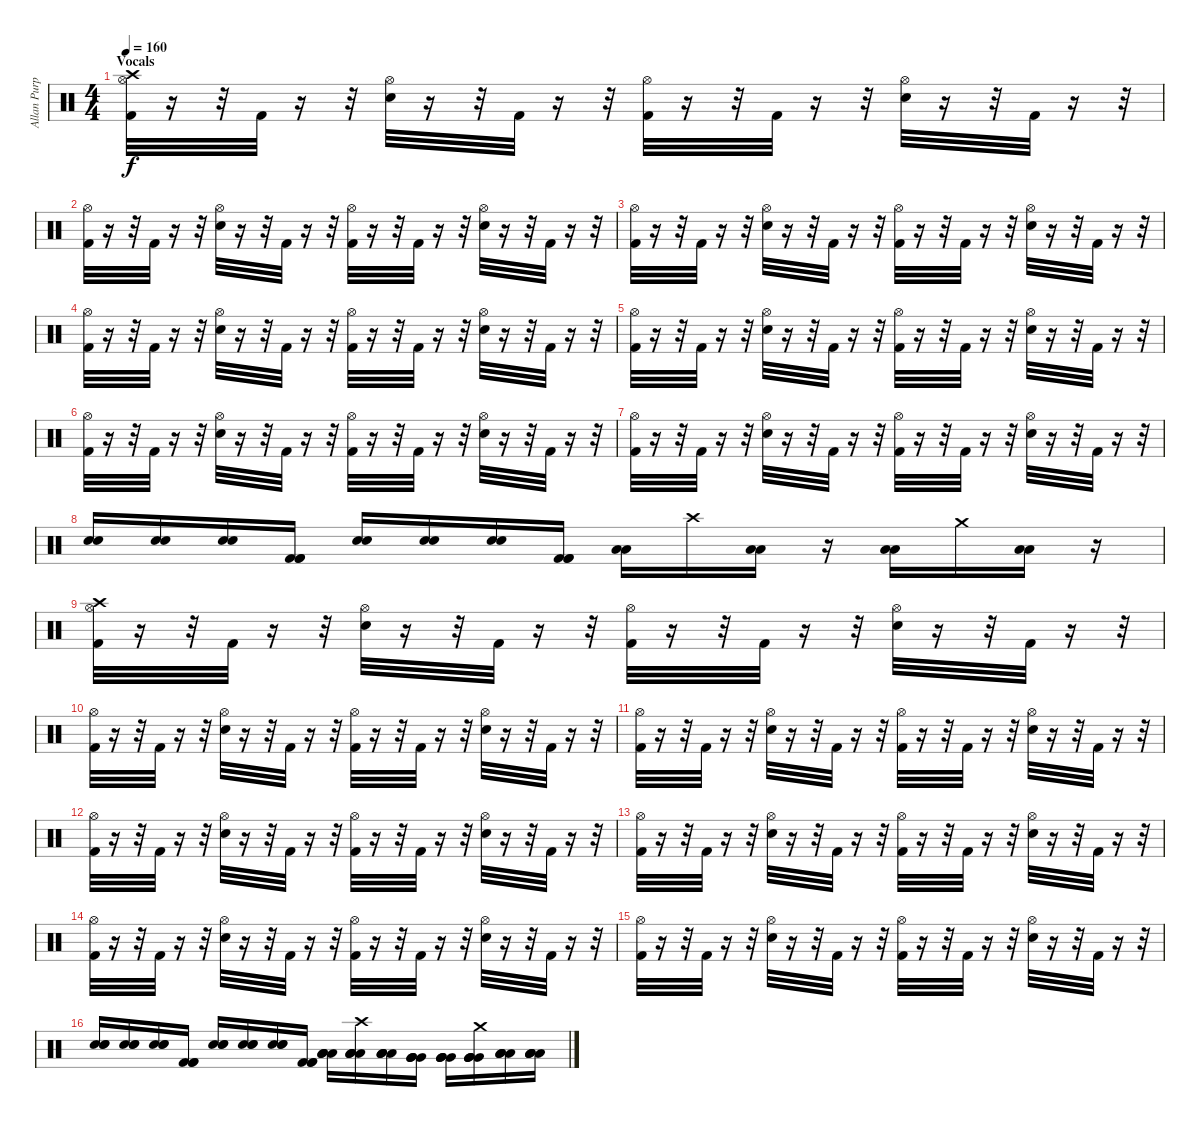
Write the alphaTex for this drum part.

\track ("Allan Purple" "Allan Purp") {instrument percussion}
\staff {score}
\articulation defaults
\ts (4 4)
\section ("" "Vocals")
\tempo 160
\clef neutral
\ks c
("Crash high (hit)" "Hi-Hat (open)" "Kick (hit) 2").32{dy f} r.16 r.32 "Kick (hit) 2".32 r.16 r.32 ("Hi-Hat (open)" "Electric Snare (hit)").32 r.16 r.32 "Kick (hit) 2".32 r.16 r.32 ("Hi-Hat (open)" "Kick (hit) 2").32 r.16 r.32 "Kick (hit) 2".32 r.16 r.32 ("Hi-Hat (open)" "Electric Snare (hit)").32 r.16 r.32 "Kick (hit) 2".32 r.16 r.32 |
("Hi-Hat (open)" "Kick (hit) 2").32 r.16 r.32 "Kick (hit) 2".32 r.16 r.32 ("Hi-Hat (open)" "Electric Snare (hit)").32 r.16 r.32 "Kick (hit) 2".32 r.16 r.32 ("Hi-Hat (open)" "Kick (hit) 2").32 r.16 r.32 "Kick (hit) 2".32 r.16 r.32 ("Hi-Hat (open)" "Electric Snare (hit)").32 r.16 r.32 "Kick (hit) 2".32 r.16 r.32 |
("Hi-Hat (open)" "Kick (hit) 2").32 r.16 r.32 "Kick (hit) 2".32 r.16 r.32 ("Hi-Hat (open)" "Electric Snare (hit)").32 r.16 r.32 "Kick (hit) 2".32 r.16 r.32 ("Hi-Hat (open)" "Kick (hit) 2").32 r.16 r.32 "Kick (hit) 2".32 r.16 r.32 ("Hi-Hat (open)" "Electric Snare (hit)").32 r.16 r.32 "Kick (hit) 2".32 r.16 r.32 |
("Hi-Hat (open)" "Kick (hit) 2").32 r.16 r.32 "Kick (hit) 2".32 r.16 r.32 ("Hi-Hat (open)" "Electric Snare (hit)").32 r.16 r.32 "Kick (hit) 2".32 r.16 r.32 ("Hi-Hat (open)" "Kick (hit) 2").32 r.16 r.32 "Kick (hit) 2".32 r.16 r.32 ("Hi-Hat (open)" "Electric Snare (hit)").32 r.16 r.32 "Kick (hit) 2".32 r.16 r.32 |
("Hi-Hat (open)" "Kick (hit) 2").32 r.16 r.32 "Kick (hit) 2".32 r.16 r.32 ("Hi-Hat (open)" "Electric Snare (hit)").32 r.16 r.32 "Kick (hit) 2".32 r.16 r.32 ("Hi-Hat (open)" "Kick (hit) 2").32 r.16 r.32 "Kick (hit) 2".32 r.16 r.32 ("Hi-Hat (open)" "Electric Snare (hit)").32 r.16 r.32 "Kick (hit) 2".32 r.16 r.32 |
("Hi-Hat (open)" "Kick (hit) 2").32 r.16 r.32 "Kick (hit) 2".32 r.16 r.32 ("Hi-Hat (open)" "Electric Snare (hit)").32 r.16 r.32 "Kick (hit) 2".32 r.16 r.32 ("Hi-Hat (open)" "Kick (hit) 2").32 r.16 r.32 "Kick (hit) 2".32 r.16 r.32 ("Hi-Hat (open)" "Electric Snare (hit)").32 r.16 r.32 "Kick (hit) 2".32 r.16 r.32 |
("Hi-Hat (open)" "Kick (hit) 2").32 r.16 r.32 "Kick (hit) 2".32 r.16 r.32 ("Hi-Hat (open)" "Electric Snare (hit)").32 r.16 r.32 "Kick (hit) 2".32 r.16 r.32 ("Hi-Hat (open)" "Kick (hit) 2").32 r.16 r.32 "Kick (hit) 2".32 r.16 r.32 ("Hi-Hat (open)" "Electric Snare (hit)").32 r.16 r.32 "Kick (hit) 2".32 r.16 r.32 |
("Electric Snare (hit)" "Electric Snare (hit)").16 ("Electric Snare (hit)" "Electric Snare (hit)").16 ("Electric Snare (hit)" "Electric Snare (hit)").16 ("Kick (hit) 2" "Kick (hit) 2" "Kick (hit) 2").16 ("Electric Snare (hit)" "Electric Snare (hit)").16 ("Electric Snare (hit)" "Electric Snare (hit)").16 ("Electric Snare (hit)" "Electric Snare (hit)").16 ("Kick (hit) 2" "Kick (hit) 2" "Kick (hit) 2").16 ("Low Tom (hit)" "Low Tom (hit)").16 "Crash high (hit)".16 ("Low Tom (hit)" "Low Tom (hit)").16 r.16 ("Low Tom (hit)" "Low Tom (hit)").16 "Crash medium (hit)".16 ("Low Tom (hit)" "Low Tom (hit)").16 r.16 |
("Crash high (hit)" "Hi-Hat (open)" "Kick (hit) 2").32 r.16 r.32 "Kick (hit) 2".32 r.16 r.32 ("Hi-Hat (open)" "Electric Snare (hit)").32 r.16 r.32 "Kick (hit) 2".32 r.16 r.32 ("Hi-Hat (open)" "Kick (hit) 2").32 r.16 r.32 "Kick (hit) 2".32 r.16 r.32 ("Hi-Hat (open)" "Electric Snare (hit)").32 r.16 r.32 "Kick (hit) 2".32 r.16 r.32 |
("Hi-Hat (open)" "Kick (hit) 2").32 r.16 r.32 "Kick (hit) 2".32 r.16 r.32 ("Hi-Hat (open)" "Electric Snare (hit)").32 r.16 r.32 "Kick (hit) 2".32 r.16 r.32 ("Hi-Hat (open)" "Kick (hit) 2").32 r.16 r.32 "Kick (hit) 2".32 r.16 r.32 ("Hi-Hat (open)" "Electric Snare (hit)").32 r.16 r.32 "Kick (hit) 2".32 r.16 r.32 |
("Hi-Hat (open)" "Kick (hit) 2").32 r.16 r.32 "Kick (hit) 2".32 r.16 r.32 ("Hi-Hat (open)" "Electric Snare (hit)").32 r.16 r.32 "Kick (hit) 2".32 r.16 r.32 ("Hi-Hat (open)" "Kick (hit) 2").32 r.16 r.32 "Kick (hit) 2".32 r.16 r.32 ("Hi-Hat (open)" "Electric Snare (hit)").32 r.16 r.32 "Kick (hit) 2".32 r.16 r.32 |
("Hi-Hat (open)" "Kick (hit) 2").32 r.16 r.32 "Kick (hit) 2".32 r.16 r.32 ("Hi-Hat (open)" "Electric Snare (hit)").32 r.16 r.32 "Kick (hit) 2".32 r.16 r.32 ("Hi-Hat (open)" "Kick (hit) 2").32 r.16 r.32 "Kick (hit) 2".32 r.16 r.32 ("Hi-Hat (open)" "Electric Snare (hit)").32 r.16 r.32 "Kick (hit) 2".32 r.16 r.32 |
("Hi-Hat (open)" "Kick (hit) 2").32 r.16 r.32 "Kick (hit) 2".32 r.16 r.32 ("Hi-Hat (open)" "Electric Snare (hit)").32 r.16 r.32 "Kick (hit) 2".32 r.16 r.32 ("Hi-Hat (open)" "Kick (hit) 2").32 r.16 r.32 "Kick (hit) 2".32 r.16 r.32 ("Hi-Hat (open)" "Electric Snare (hit)").32 r.16 r.32 "Kick (hit) 2".32 r.16 r.32 |
("Hi-Hat (open)" "Kick (hit) 2").32 r.16 r.32 "Kick (hit) 2".32 r.16 r.32 ("Hi-Hat (open)" "Electric Snare (hit)").32 r.16 r.32 "Kick (hit) 2".32 r.16 r.32 ("Hi-Hat (open)" "Kick (hit) 2").32 r.16 r.32 "Kick (hit) 2".32 r.16 r.32 ("Hi-Hat (open)" "Electric Snare (hit)").32 r.16 r.32 "Kick (hit) 2".32 r.16 r.32 |
("Hi-Hat (open)" "Kick (hit) 2").32 r.16 r.32 "Kick (hit) 2".32 r.16 r.32 ("Hi-Hat (open)" "Electric Snare (hit)").32 r.16 r.32 "Kick (hit) 2".32 r.16 r.32 ("Hi-Hat (open)" "Kick (hit) 2").32 r.16 r.32 "Kick (hit) 2".32 r.16 r.32 ("Hi-Hat (open)" "Electric Snare (hit)").32 r.16 r.32 "Kick (hit) 2".32 r.16 r.32 |
("Electric Snare (hit)" "Electric Snare (hit)" "Electric Snare (hit)").16 ("Electric Snare (hit)" "Electric Snare (hit)" "Electric Snare (hit)").16 ("Electric Snare (hit)" "Electric Snare (hit)" "Electric Snare (hit)").16 ("Kick (hit) 2" "Kick (hit) 2" "Kick (hit) 2").16 ("Electric Snare (hit)" "Electric Snare (hit)" "Electric Snare (hit)").16 ("Electric Snare (hit)" "Electric Snare (hit)" "Electric Snare (hit)").16 ("Electric Snare (hit)" "Electric Snare (hit)" "Electric Snare (hit)").16 ("Kick (hit) 2" "Kick (hit) 2" "Kick (hit) 2").16 ("Low Tom (hit)" "Low Tom (hit)" "Low Tom (hit)" "Low Tom (hit)").16 ("Crash high (hit)" "Low Tom (hit)" "Low Tom (hit)" "Low Tom (hit)" "Low Tom (hit)").16 ("Low Tom (hit)" "Low Tom (hit)" "Low Tom (hit)" "Low Tom (hit)").16 ("Very Low Tom (hit)" "Very Low Tom (hit)" "Very Low Tom (hit)" "Very Low Tom (hit)").16 ("Very Low Tom (hit)" "Very Low Tom (hit)" "Very Low Tom (hit)" "Very Low Tom (hit)").16 ("Crash medium (hit)" "Very Low Tom (hit)" "Very Low Tom (hit)" "Very Low Tom (hit)" "Very Low Tom (hit)").16 ("Low Floor Tom (hit)" "Low Floor Tom (hit)" "Low Floor Tom (hit)" "Low Floor Tom (hit)").16 ("Low Floor Tom (hit)" "Low Floor Tom (hit)" "Low Floor Tom (hit)" "Low Floor Tom (hit)").16
